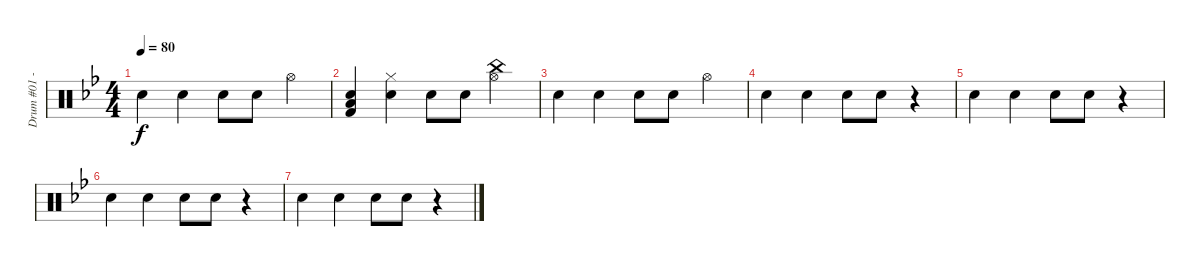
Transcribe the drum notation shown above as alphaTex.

\track ("Drum #01 - CP" "Drum #01 -") {instrument percussion}
\staff {score}
\articulation defaults
\ts (4 4)
\tempo 80
\clef neutral
\ks bb "Snare (hit) 2".4{dy f} "Snare (hit) 2".4 "Electric Snare (hit)".8 "Electric Snare (hit)".8 "Hi-Hat (open)".4
|
("Snare (hit) 2" "Low Tom (hit)" "Kick (hit) 2").4 ("Snare (hit) 2" "Hi-Hat (closed)").4 "Electric Snare (hit)".8 "Electric Snare (hit)".8 ("Hi-Hat (open)" "China (hit)").4 |
"Snare (hit) 2".4 "Snare (hit) 2".4 "Electric Snare (hit)".8 "Electric Snare (hit)".8 "Hi-Hat (open)".4 |
"Snare (hit) 2".4 "Snare (hit) 2".4 "Electric Snare (hit)".8 "Electric Snare (hit)".8 r.4 |
"Snare (hit) 2".4 "Snare (hit) 2".4 "Electric Snare (hit)".8 "Electric Snare (hit)".8 r.4 |
"Snare (hit) 2".4 "Snare (hit) 2".4 "Electric Snare (hit)".8 "Electric Snare (hit)".8 r.4 |
"Snare (hit) 2".4 "Snare (hit) 2".4 "Electric Snare (hit)".8 "Electric Snare (hit)".8 r.4
